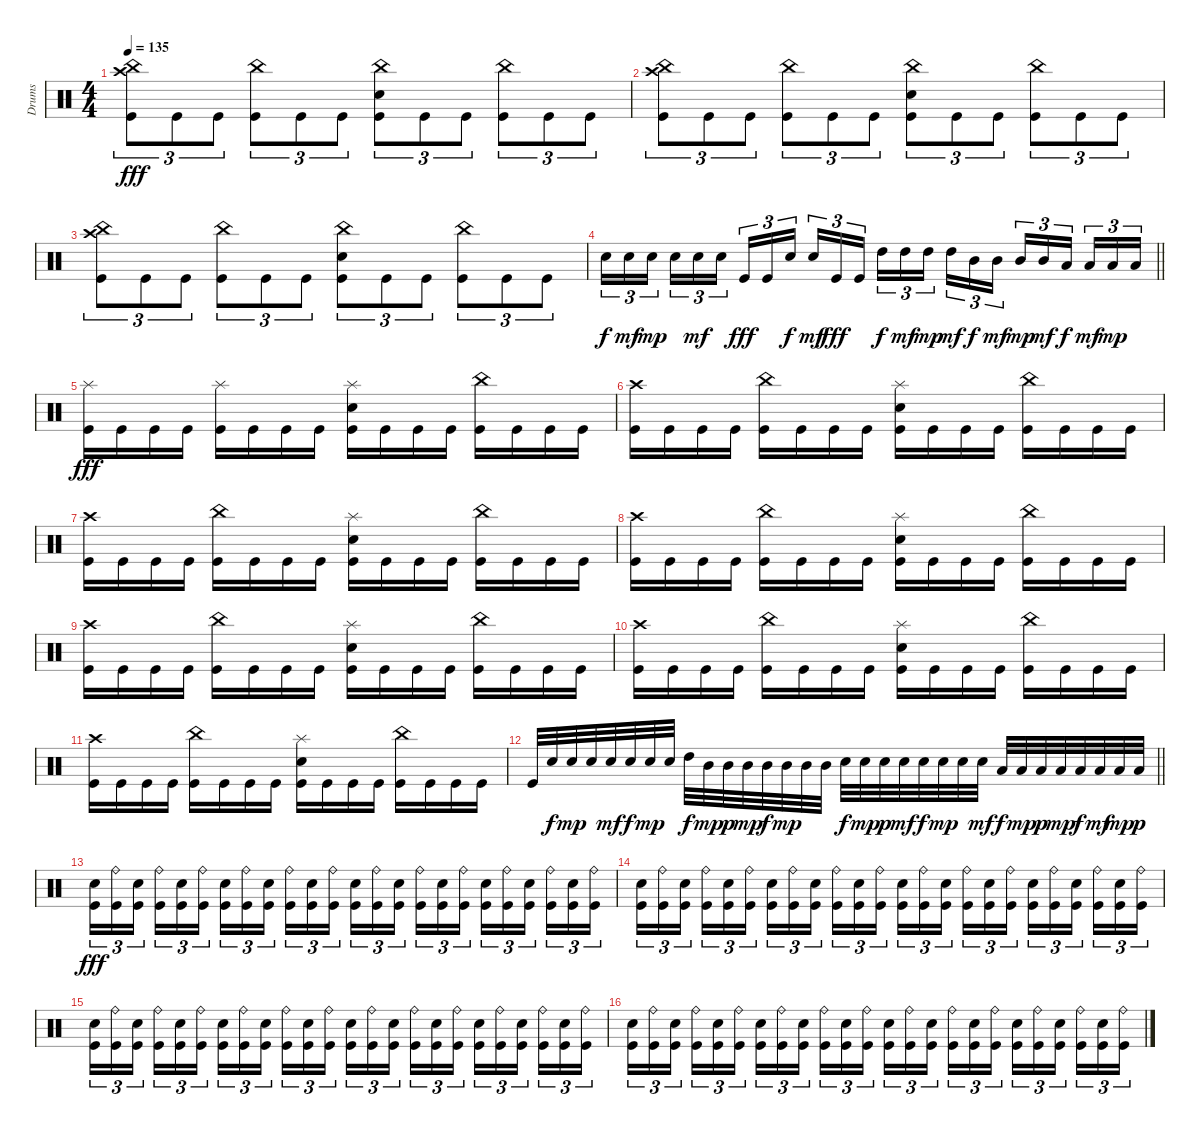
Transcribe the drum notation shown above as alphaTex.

\track ("Drums" "Drums") {instrument percussion}
\staff {score}
\articulation defaults
\ts (4 4)
\tempo 135
\clef neutral
\ks c
("Crash high (hit)" "China (hit)" "Kick (hit)").8{tu (3 2) dy fff} "Kick (hit)".8{tu (3 2)} "Kick (hit)".8{tu (3 2)} ("China (hit)" "Kick (hit)").8{tu (3 2)} "Kick (hit)".8{tu (3 2)} "Kick (hit)".8{tu (3 2)} ("China (hit)" "Electric Snare (hit)" "Kick (hit)").8{tu (3 2)} "Kick (hit)".8{tu (3 2)} "Kick (hit)".8{tu (3 2)} ("China (hit)" "Kick (hit)").8{tu (3 2)} "Kick (hit)".8{tu (3 2)} "Kick (hit)".8{tu (3 2)} |
("Crash high (hit)" "China (hit)" "Kick (hit)").8{tu (3 2)} "Kick (hit)".8{tu (3 2)} "Kick (hit)".8{tu (3 2)} ("China (hit)" "Kick (hit)").8{tu (3 2)} "Kick (hit)".8{tu (3 2)} "Kick (hit)".8{tu (3 2)} ("China (hit)" "Electric Snare (hit)" "Kick (hit)").8{tu (3 2)} "Kick (hit)".8{tu (3 2)} "Kick (hit)".8{tu (3 2)} ("China (hit)" "Kick (hit)").8{tu (3 2)} "Kick (hit)".8{tu (3 2)} "Kick (hit)".8{tu (3 2)} |
("Crash high (hit)" "China (hit)" "Kick (hit)").8{tu (3 2)} "Kick (hit)".8{tu (3 2)} "Kick (hit)".8{tu (3 2)} ("China (hit)" "Kick (hit)").8{tu (3 2)} "Kick (hit)".8{tu (3 2)} "Kick (hit)".8{tu (3 2)} ("China (hit)" "Electric Snare (hit)" "Kick (hit)").8{tu (3 2)} "Kick (hit)".8{tu (3 2)} "Kick (hit)".8{tu (3 2)} ("China (hit)" "Kick (hit)").8{tu (3 2)} "Kick (hit)".8{tu (3 2)} "Kick (hit)".8{tu (3 2)} |
\barLineRight lightlight "Electric Snare (hit)".16{tu (3 2) dy f} "Electric Snare (hit)".16{tu (3 2) dy mf} "Electric Snare (hit)".16{tu (3 2) dy mp beam splitsecondary} "Electric Snare (hit)".16{tu (3 2)} "Electric Snare (hit)".16{tu (3 2) dy mf} "Electric Snare (hit)".16{tu (3 2)} "Kick (hit)".16{tu (3 2) dy fff} "Kick (hit)".16{tu (3 2)} "Electric Snare (hit)".16{tu (3 2) dy f beam splitsecondary} "Electric Snare (hit)".16{tu (3 2) dy mf} "Kick (hit)".16{tu (3 2) dy fff} "Kick (hit)".16{tu (3 2)} "High Tom (hit)".16{tu (3 2) dy f} "High Tom (hit)".16{tu (3 2) dy mf} "High Tom (hit)".16{tu (3 2) dy mp beam splitsecondary} "High Tom (hit)".16{tu (3 2) dy mf} "Mid Tom (hit)".16{tu (3 2) dy f} "Mid Tom (hit)".16{tu (3 2) dy mf} "Mid Tom (hit)".16{tu (3 2) dy mp} "Mid Tom (hit)".16{tu (3 2) dy mf} "Low Tom (hit)".16{tu (3 2) dy f beam splitsecondary} "Low Tom (hit)".16{tu (3 2) dy mf} "Low Tom (hit)".16{tu (3 2) dy mp} "Low Tom (hit)".16{tu (3 2)}
|
("Splash (hit)" "Kick (hit)").16{dy fff} "Kick (hit)".16 "Kick (hit)".16 "Kick (hit)".16 ("Splash (hit)" "Kick (hit)").16 "Kick (hit)".16 "Kick (hit)".16 "Kick (hit)".16 ("Splash (hit)" "Electric Snare (hit)" "Kick (hit)").16 "Kick (hit)".16 "Kick (hit)".16 "Kick (hit)".16 ("China (hit)" "Kick (hit)").16 "Kick (hit)".16 "Kick (hit)".16 "Kick (hit)".16 |
("Crash high (hit)" "Kick (hit)").16 "Kick (hit)".16 "Kick (hit)".16 "Kick (hit)".16 ("China (hit)" "Kick (hit)").16 "Kick (hit)".16 "Kick (hit)".16 "Kick (hit)".16 ("Splash (hit)" "Electric Snare (hit)" "Kick (hit)").16 "Kick (hit)".16 "Kick (hit)".16 "Kick (hit)".16 ("China (hit)" "Kick (hit)").16 "Kick (hit)".16 "Kick (hit)".16 "Kick (hit)".16 |
("Crash high (hit)" "Kick (hit)").16 "Kick (hit)".16 "Kick (hit)".16 "Kick (hit)".16 ("China (hit)" "Kick (hit)").16 "Kick (hit)".16 "Kick (hit)".16 "Kick (hit)".16 ("Splash (hit)" "Electric Snare (hit)" "Kick (hit)").16 "Kick (hit)".16 "Kick (hit)".16 "Kick (hit)".16 ("China (hit)" "Kick (hit)").16 "Kick (hit)".16 "Kick (hit)".16 "Kick (hit)".16 |
("Crash high (hit)" "Kick (hit)").16 "Kick (hit)".16 "Kick (hit)".16 "Kick (hit)".16 ("China (hit)" "Kick (hit)").16 "Kick (hit)".16 "Kick (hit)".16 "Kick (hit)".16 ("Splash (hit)" "Electric Snare (hit)" "Kick (hit)").16 "Kick (hit)".16 "Kick (hit)".16 "Kick (hit)".16 ("China (hit)" "Kick (hit)").16 "Kick (hit)".16 "Kick (hit)".16 "Kick (hit)".16 |
("Crash high (hit)" "Kick (hit)").16 "Kick (hit)".16 "Kick (hit)".16 "Kick (hit)".16 ("China (hit)" "Kick (hit)").16 "Kick (hit)".16 "Kick (hit)".16 "Kick (hit)".16 ("Splash (hit)" "Electric Snare (hit)" "Kick (hit)").16 "Kick (hit)".16 "Kick (hit)".16 "Kick (hit)".16 ("China (hit)" "Kick (hit)").16 "Kick (hit)".16 "Kick (hit)".16 "Kick (hit)".16 |
("Crash high (hit)" "Kick (hit)").16 "Kick (hit)".16 "Kick (hit)".16 "Kick (hit)".16 ("China (hit)" "Kick (hit)").16 "Kick (hit)".16 "Kick (hit)".16 "Kick (hit)".16 ("Splash (hit)" "Electric Snare (hit)" "Kick (hit)").16 "Kick (hit)".16 "Kick (hit)".16 "Kick (hit)".16 ("China (hit)" "Kick (hit)").16 "Kick (hit)".16 "Kick (hit)".16 "Kick (hit)".16 |
("Crash high (hit)" "Kick (hit)").16 "Kick (hit)".16 "Kick (hit)".16 "Kick (hit)".16 ("China (hit)" "Kick (hit)").16 "Kick (hit)".16 "Kick (hit)".16 "Kick (hit)".16 ("Splash (hit)" "Electric Snare (hit)" "Kick (hit)").16 "Kick (hit)".16 "Kick (hit)".16 "Kick (hit)".16 ("China (hit)" "Kick (hit)").16 "Kick (hit)".16 "Kick (hit)".16 "Kick (hit)".16 |
\barLineRight lightlight "Kick (hit)".32 "Electric Snare (hit)".32{dy f} "Electric Snare (hit)".32{dy mp} "Electric Snare (hit)".32 "Electric Snare (hit)".32{dy mf} "Electric Snare (hit)".32{dy f} "Electric Snare (hit)".32{dy mp} "Electric Snare (hit)".32 "High Tom (hit)".32{dy f} "Mid Tom (hit)".32{dy mp} "Mid Tom (hit)".32{dy p} "Mid Tom (hit)".32{dy mp} "Mid Tom (hit)".32{dy f} "Mid Tom (hit)".32{dy mp} "Mid Tom (hit)".32 "Mid Tom (hit)".32 "Electric Snare (hit)".32{dy f} "Electric Snare (hit)".32{dy mp} "Electric Snare (hit)".32{dy p} "Electric Snare (hit)".32{dy mf} "Electric Snare (hit)".32{dy f} "Electric Snare (hit)".32{dy mp} "Electric Snare (hit)".32 "Electric Snare (hit)".32{dy mf} "Low Tom (hit)".32{dy f} "Low Tom (hit)".32{dy mp} "Low Tom (hit)".32{dy p} "Low Tom (hit)".32{dy mp} "Low Tom (hit)".32{dy f} "Low Tom (hit)".32{dy mf} "Low Tom (hit)".32{dy mp} "Low Tom (hit)".32{dy p}
|
("Electric Snare (hit)" "Kick (hit)").16{tu (3 2) dy fff} ("Ride (bell)" "Kick (hit)").16{tu (3 2)} ("Electric Snare (hit)" "Kick (hit)").16{tu (3 2) beam splitsecondary} ("Ride (bell)" "Kick (hit)").16{tu (3 2)} ("Electric Snare (hit)" "Kick (hit)").16{tu (3 2)} ("Ride (bell)" "Kick (hit)").16{tu (3 2)} ("Electric Snare (hit)" "Kick (hit)").16{tu (3 2)} ("Ride (bell)" "Kick (hit)").16{tu (3 2)} ("Electric Snare (hit)" "Kick (hit)").16{tu (3 2) beam splitsecondary} ("Ride (bell)" "Kick (hit)").16{tu (3 2)} ("Electric Snare (hit)" "Kick (hit)").16{tu (3 2)} ("Ride (bell)" "Kick (hit)").16{tu (3 2)} ("Electric Snare (hit)" "Kick (hit)").16{tu (3 2)} ("Ride (bell)" "Kick (hit)").16{tu (3 2)} ("Electric Snare (hit)" "Kick (hit)").16{tu (3 2) beam splitsecondary} ("Ride (bell)" "Kick (hit)").16{tu (3 2)} ("Electric Snare (hit)" "Kick (hit)").16{tu (3 2)} ("Ride (bell)" "Kick (hit)").16{tu (3 2)} ("Electric Snare (hit)" "Kick (hit)").16{tu (3 2)} ("Ride (bell)" "Kick (hit)").16{tu (3 2)} ("Electric Snare (hit)" "Kick (hit)").16{tu (3 2) beam splitsecondary} ("Ride (bell)" "Kick (hit)").16{tu (3 2)} ("Electric Snare (hit)" "Kick (hit)").16{tu (3 2)} ("Ride (bell)" "Kick (hit)").16{tu (3 2)} |
("Electric Snare (hit)" "Kick (hit)").16{tu (3 2)} ("Ride (bell)" "Kick (hit)").16{tu (3 2)} ("Electric Snare (hit)" "Kick (hit)").16{tu (3 2) beam splitsecondary} ("Ride (bell)" "Kick (hit)").16{tu (3 2)} ("Electric Snare (hit)" "Kick (hit)").16{tu (3 2)} ("Ride (bell)" "Kick (hit)").16{tu (3 2)} ("Electric Snare (hit)" "Kick (hit)").16{tu (3 2)} ("Ride (bell)" "Kick (hit)").16{tu (3 2)} ("Electric Snare (hit)" "Kick (hit)").16{tu (3 2) beam splitsecondary} ("Ride (bell)" "Kick (hit)").16{tu (3 2)} ("Electric Snare (hit)" "Kick (hit)").16{tu (3 2)} ("Ride (bell)" "Kick (hit)").16{tu (3 2)} ("Electric Snare (hit)" "Kick (hit)").16{tu (3 2)} ("Ride (bell)" "Kick (hit)").16{tu (3 2)} ("Electric Snare (hit)" "Kick (hit)").16{tu (3 2) beam splitsecondary} ("Ride (bell)" "Kick (hit)").16{tu (3 2)} ("Electric Snare (hit)" "Kick (hit)").16{tu (3 2)} ("Ride (bell)" "Kick (hit)").16{tu (3 2)} ("Electric Snare (hit)" "Kick (hit)").16{tu (3 2)} ("Ride (bell)" "Kick (hit)").16{tu (3 2)} ("Electric Snare (hit)" "Kick (hit)").16{tu (3 2) beam splitsecondary} ("Ride (bell)" "Kick (hit)").16{tu (3 2)} ("Electric Snare (hit)" "Kick (hit)").16{tu (3 2)} ("Ride (bell)" "Kick (hit)").16{tu (3 2)} |
("Electric Snare (hit)" "Kick (hit)").16{tu (3 2)} ("Ride (bell)" "Kick (hit)").16{tu (3 2)} ("Electric Snare (hit)" "Kick (hit)").16{tu (3 2) beam splitsecondary} ("Ride (bell)" "Kick (hit)").16{tu (3 2)} ("Electric Snare (hit)" "Kick (hit)").16{tu (3 2)} ("Ride (bell)" "Kick (hit)").16{tu (3 2)} ("Electric Snare (hit)" "Kick (hit)").16{tu (3 2)} ("Ride (bell)" "Kick (hit)").16{tu (3 2)} ("Electric Snare (hit)" "Kick (hit)").16{tu (3 2) beam splitsecondary} ("Ride (bell)" "Kick (hit)").16{tu (3 2)} ("Electric Snare (hit)" "Kick (hit)").16{tu (3 2)} ("Ride (bell)" "Kick (hit)").16{tu (3 2)} ("Electric Snare (hit)" "Kick (hit)").16{tu (3 2)} ("Ride (bell)" "Kick (hit)").16{tu (3 2)} ("Electric Snare (hit)" "Kick (hit)").16{tu (3 2) beam splitsecondary} ("Ride (bell)" "Kick (hit)").16{tu (3 2)} ("Electric Snare (hit)" "Kick (hit)").16{tu (3 2)} ("Ride (bell)" "Kick (hit)").16{tu (3 2)} ("Electric Snare (hit)" "Kick (hit)").16{tu (3 2)} ("Ride (bell)" "Kick (hit)").16{tu (3 2)} ("Electric Snare (hit)" "Kick (hit)").16{tu (3 2) beam splitsecondary} ("Ride (bell)" "Kick (hit)").16{tu (3 2)} ("Electric Snare (hit)" "Kick (hit)").16{tu (3 2)} ("Ride (bell)" "Kick (hit)").16{tu (3 2)} |
("Electric Snare (hit)" "Kick (hit)").16{tu (3 2)} ("Ride (bell)" "Kick (hit)").16{tu (3 2)} ("Electric Snare (hit)" "Kick (hit)").16{tu (3 2) beam splitsecondary} ("Ride (bell)" "Kick (hit)").16{tu (3 2)} ("Electric Snare (hit)" "Kick (hit)").16{tu (3 2)} ("Ride (bell)" "Kick (hit)").16{tu (3 2)} ("Electric Snare (hit)" "Kick (hit)").16{tu (3 2)} ("Ride (bell)" "Kick (hit)").16{tu (3 2)} ("Electric Snare (hit)" "Kick (hit)").16{tu (3 2) beam splitsecondary} ("Ride (bell)" "Kick (hit)").16{tu (3 2)} ("Electric Snare (hit)" "Kick (hit)").16{tu (3 2)} ("Ride (bell)" "Kick (hit)").16{tu (3 2)} ("Electric Snare (hit)" "Kick (hit)").16{tu (3 2)} ("Ride (bell)" "Kick (hit)").16{tu (3 2)} ("Electric Snare (hit)" "Kick (hit)").16{tu (3 2) beam splitsecondary} ("Ride (bell)" "Kick (hit)").16{tu (3 2)} ("Electric Snare (hit)" "Kick (hit)").16{tu (3 2)} ("Ride (bell)" "Kick (hit)").16{tu (3 2)} ("Electric Snare (hit)" "Kick (hit)").16{tu (3 2)} ("Ride (bell)" "Kick (hit)").16{tu (3 2)} ("Electric Snare (hit)" "Kick (hit)").16{tu (3 2) beam splitsecondary} ("Ride (bell)" "Kick (hit)").16{tu (3 2)} ("Electric Snare (hit)" "Kick (hit)").16{tu (3 2)} ("Ride (bell)" "Kick (hit)").16{tu (3 2)}
